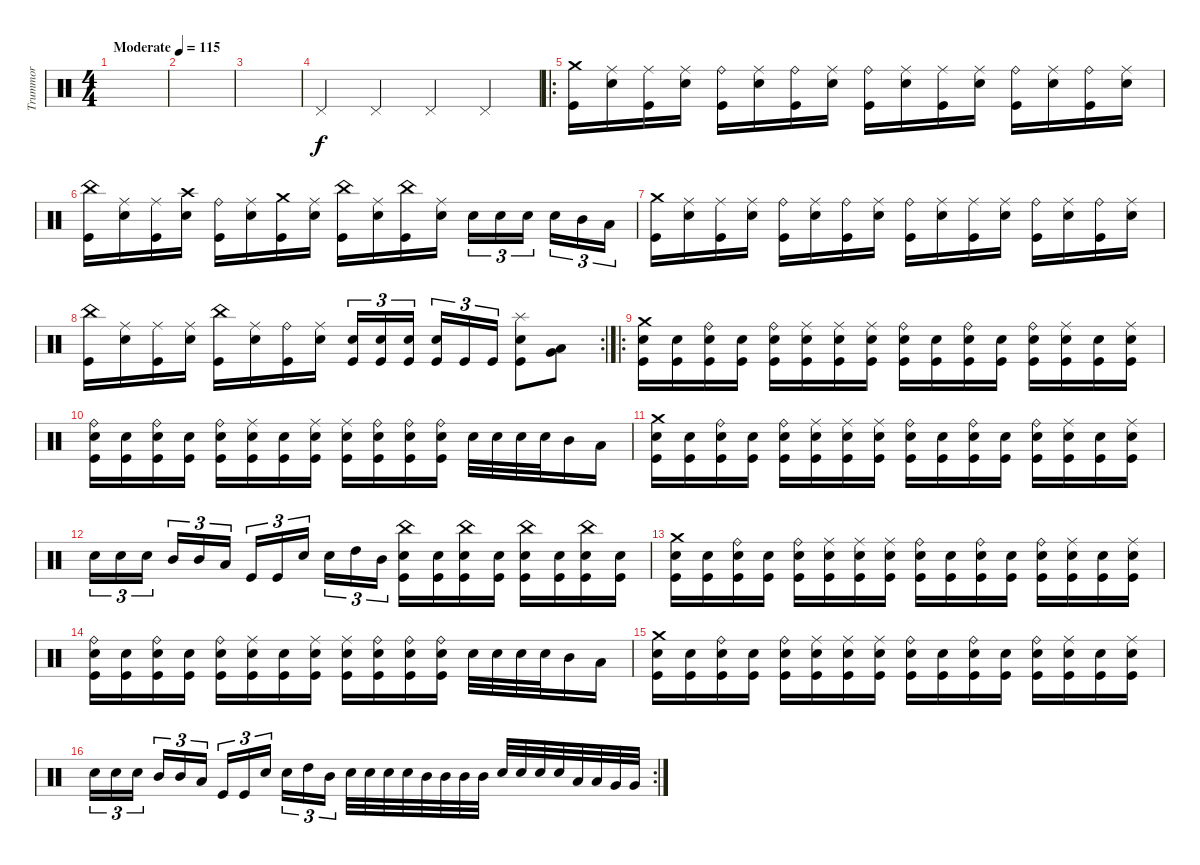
\track ("Trummor" "Trummor") {instrument percussion}
\staff {score}
\articulation defaults
\ts (4 4)
\tempo (115 "Moderate")
\clef neutral
\ks c
|
|
|
"Pedal Hi-Hat (hit)".4 "Pedal Hi-Hat (hit)".4 "Pedal Hi-Hat (hit)".4 "Pedal Hi-Hat (hit)".4 |
\ro
("Crash medium (hit)" "Kick (hit)").16 ("Ride (middle)" "Electric Snare (hit)").16 ("Ride (middle)" "Kick (hit)").16 ("Ride (middle)" "Electric Snare (hit)").16 ("Ride (bell)" "Kick (hit)").16 ("Ride (middle)" "Electric Snare (hit)").16 ("Ride (bell)" "Kick (hit)").16 ("Ride (middle)" "Electric Snare (hit)").16 ("Ride (bell)" "Kick (hit)").16 ("Ride (middle)" "Electric Snare (hit)").16 ("Ride (middle)" "Kick (hit)").16 ("Ride (middle)" "Electric Snare (hit)").16 ("Ride (bell)" "Kick (hit)").16 ("Ride (middle)" "Electric Snare (hit)").16 ("Ride (bell)" "Kick (hit)").16 ("Ride (middle)" "Electric Snare (hit)").16 |
("China (hit)" "Kick (hit)").16 ("Ride (middle)" "Electric Snare (hit)").16 ("Ride (middle)" "Kick (hit)").16 ("Crash high (hit)" "Electric Snare (hit)").16 ("Ride (bell)" "Kick (hit)").16 ("Ride (middle)" "Electric Snare (hit)").16 ("Crash medium (hit)" "Kick (hit)").16 ("Ride (middle)" "Electric Snare (hit)").16 ("China (hit)" "Kick (hit)").16 ("Ride (middle)" "Electric Snare (hit)").16 ("China (hit)" "Kick (hit)").16 ("Ride (middle)" "Electric Snare (hit)").16 "Electric Snare (hit)".16{tu (3 2)} "Electric Snare (hit)".16{tu (3 2)} "Electric Snare (hit)".16{tu (3 2) beam splitsecondary} "Electric Snare (hit)".16{tu (3 2)} "Mid Tom (hit)".16{tu (3 2)} "Low Tom (hit)".16{tu (3 2)} |
("Crash medium (hit)" "Kick (hit)").16 ("Ride (middle)" "Electric Snare (hit)").16 ("Ride (middle)" "Kick (hit)").16 ("Ride (middle)" "Electric Snare (hit)").16 ("Ride (bell)" "Kick (hit)").16 ("Ride (middle)" "Electric Snare (hit)").16 ("Ride (bell)" "Kick (hit)").16 ("Ride (middle)" "Electric Snare (hit)").16 ("Ride (bell)" "Kick (hit)").16 ("Ride (middle)" "Electric Snare (hit)").16 ("Ride (middle)" "Kick (hit)").16 ("Ride (middle)" "Electric Snare (hit)").16 ("Ride (bell)" "Kick (hit)").16 ("Ride (middle)" "Electric Snare (hit)").16 ("Ride (bell)" "Kick (hit)").16 ("Ride (middle)" "Electric Snare (hit)").16 |
\rc 2
("China (hit)" "Kick (hit)").16 ("Ride (middle)" "Electric Snare (hit)").16 ("Ride (middle)" "Kick (hit)").16 ("Ride (middle)" "Electric Snare (hit)").16 ("China (hit)" "Kick (hit)").16 ("Ride (middle)" "Electric Snare (hit)").16 ("Ride (bell)" "Kick (hit)").16 ("Ride (middle)" "Electric Snare (hit)").16 ("Electric Snare (hit)" "Kick (hit)").16{tu (3 2)} ("Electric Snare (hit)" "Kick (hit)").16{tu (3 2)} ("Electric Snare (hit)" "Kick (hit)").16{tu (3 2) beam splitsecondary} ("Electric Snare (hit)" "Kick (hit)").16{tu (3 2)} "Kick (hit)".16{tu (3 2)} "Kick (hit)".16{tu (3 2)} ("Splash (hit)" "Electric Snare (hit)" "Kick (hit)").8 ("Low Tom (hit)" "Very Low Tom (hit)").8 |
\ro
("Crash medium (hit)" "Electric Snare (hit)" "Kick (hit)").16 ("Electric Snare (hit)" "Kick (hit)").16 ("Ride (bell)" "Electric Snare (hit)" "Kick (hit)").16 ("Electric Snare (hit)" "Kick (hit)").16 ("Ride (bell)" "Electric Snare (hit)" "Kick (hit)").16 ("Ride (middle)" "Electric Snare (hit)" "Kick (hit)").16 ("Ride (middle)" "Electric Snare (hit)" "Kick (hit)").16 ("Ride (middle)" "Electric Snare (hit)" "Kick (hit)").16 ("Ride (bell)" "Electric Snare (hit)" "Kick (hit)").16 ("Electric Snare (hit)" "Kick (hit)").16 ("Ride (bell)" "Electric Snare (hit)" "Kick (hit)").16 ("Electric Snare (hit)" "Kick (hit)").16 ("Ride (bell)" "Electric Snare (hit)" "Kick (hit)").16 ("Ride (middle)" "Electric Snare (hit)" "Kick (hit)").16 ("Electric Snare (hit)" "Kick (hit)").16 ("Ride (middle)" "Electric Snare (hit)" "Kick (hit)").16 |
("Ride (bell)" "Electric Snare (hit)" "Kick (hit)").16 ("Electric Snare (hit)" "Kick (hit)").16 ("Ride (bell)" "Electric Snare (hit)" "Kick (hit)").16 ("Electric Snare (hit)" "Kick (hit)").16 ("Ride (bell)" "Electric Snare (hit)" "Kick (hit)").16 ("Ride (middle)" "Electric Snare (hit)" "Kick (hit)").16 ("Electric Snare (hit)" "Kick (hit)").16 ("Ride (middle)" "Electric Snare (hit)" "Kick (hit)").16 ("Ride (middle)" "Electric Snare (hit)" "Kick (hit)").16 ("Ride (bell)" "Electric Snare (hit)" "Kick (hit)").16 ("Ride (bell)" "Electric Snare (hit)" "Kick (hit)").16 ("Ride (bell)" "Electric Snare (hit)" "Kick (hit)").16 "Electric Snare (hit)".32 "Electric Snare (hit)".32 "Electric Snare (hit)".32 "Electric Snare (hit)".32 "Mid Tom (hit)".16 "Low Tom (hit)".16 |
("Crash medium (hit)" "Electric Snare (hit)" "Kick (hit)").16 ("Electric Snare (hit)" "Kick (hit)").16 ("Ride (bell)" "Electric Snare (hit)" "Kick (hit)").16 ("Electric Snare (hit)" "Kick (hit)").16 ("Ride (bell)" "Electric Snare (hit)" "Kick (hit)").16 ("Ride (middle)" "Electric Snare (hit)" "Kick (hit)").16 ("Ride (middle)" "Electric Snare (hit)" "Kick (hit)").16 ("Ride (middle)" "Electric Snare (hit)" "Kick (hit)").16 ("Ride (bell)" "Electric Snare (hit)" "Kick (hit)").16 ("Electric Snare (hit)" "Kick (hit)").16 ("Ride (bell)" "Electric Snare (hit)" "Kick (hit)").16 ("Electric Snare (hit)" "Kick (hit)").16 ("Ride (bell)" "Electric Snare (hit)" "Kick (hit)").16 ("Ride (middle)" "Electric Snare (hit)" "Kick (hit)").16 ("Electric Snare (hit)" "Kick (hit)").16 ("Ride (middle)" "Electric Snare (hit)" "Kick (hit)").16 |
"Electric Snare (hit)".16{tu (3 2)} "Electric Snare (hit)".16{tu (3 2)} "Electric Snare (hit)".16{tu (3 2) beam splitsecondary} "Mid Tom (hit)".16{tu (3 2)} "Mid Tom (hit)".16{tu (3 2)} "Low Tom (hit)".16{tu (3 2)} "Kick (hit)".16{tu (3 2)} "Kick (hit)".16{tu (3 2)} "Electric Snare (hit)".16{tu (3 2) beam splitsecondary} "Electric Snare (hit)".16{tu (3 2)} "High Tom (hit)".16{tu (3 2)} "Mid Tom (hit)".16{tu (3 2)} ("China (hit)" "Electric Snare (hit)" "Kick (hit)").16 ("Electric Snare (hit)" "Kick (hit)").16 ("China (hit)" "Electric Snare (hit)" "Kick (hit)").16 ("Electric Snare (hit)" "Kick (hit)").16 ("China (hit)" "Electric Snare (hit)" "Kick (hit)").16 ("Electric Snare (hit)" "Kick (hit)").16 ("China (hit)" "Electric Snare (hit)" "Kick (hit)").16 ("Electric Snare (hit)" "Kick (hit)").16 |
("Crash medium (hit)" "Electric Snare (hit)" "Kick (hit)").16 ("Electric Snare (hit)" "Kick (hit)").16 ("Ride (bell)" "Electric Snare (hit)" "Kick (hit)").16 ("Electric Snare (hit)" "Kick (hit)").16 ("Ride (bell)" "Electric Snare (hit)" "Kick (hit)").16 ("Ride (middle)" "Electric Snare (hit)" "Kick (hit)").16 ("Ride (middle)" "Electric Snare (hit)" "Kick (hit)").16 ("Ride (middle)" "Electric Snare (hit)" "Kick (hit)").16 ("Ride (bell)" "Electric Snare (hit)" "Kick (hit)").16 ("Electric Snare (hit)" "Kick (hit)").16 ("Ride (bell)" "Electric Snare (hit)" "Kick (hit)").16 ("Electric Snare (hit)" "Kick (hit)").16 ("Ride (bell)" "Electric Snare (hit)" "Kick (hit)").16 ("Ride (middle)" "Electric Snare (hit)" "Kick (hit)").16 ("Electric Snare (hit)" "Kick (hit)").16 ("Ride (middle)" "Electric Snare (hit)" "Kick (hit)").16 |
("Ride (bell)" "Electric Snare (hit)" "Kick (hit)").16 ("Electric Snare (hit)" "Kick (hit)").16 ("Ride (bell)" "Electric Snare (hit)" "Kick (hit)").16 ("Electric Snare (hit)" "Kick (hit)").16 ("Ride (bell)" "Electric Snare (hit)" "Kick (hit)").16 ("Ride (middle)" "Electric Snare (hit)" "Kick (hit)").16 ("Electric Snare (hit)" "Kick (hit)").16 ("Ride (middle)" "Electric Snare (hit)" "Kick (hit)").16 ("Ride (middle)" "Electric Snare (hit)" "Kick (hit)").16 ("Ride (bell)" "Electric Snare (hit)" "Kick (hit)").16 ("Ride (bell)" "Electric Snare (hit)" "Kick (hit)").16 ("Ride (bell)" "Electric Snare (hit)" "Kick (hit)").16 "Electric Snare (hit)".32 "Electric Snare (hit)".32 "Electric Snare (hit)".32 "Electric Snare (hit)".32 "Mid Tom (hit)".16 "Low Tom (hit)".16 |
("Crash medium (hit)" "Electric Snare (hit)" "Kick (hit)").16 ("Electric Snare (hit)" "Kick (hit)").16 ("Ride (bell)" "Electric Snare (hit)" "Kick (hit)").16 ("Electric Snare (hit)" "Kick (hit)").16 ("Ride (bell)" "Electric Snare (hit)" "Kick (hit)").16 ("Ride (middle)" "Electric Snare (hit)" "Kick (hit)").16 ("Ride (middle)" "Electric Snare (hit)" "Kick (hit)").16 ("Ride (middle)" "Electric Snare (hit)" "Kick (hit)").16 ("Ride (bell)" "Electric Snare (hit)" "Kick (hit)").16 ("Electric Snare (hit)" "Kick (hit)").16 ("Ride (bell)" "Electric Snare (hit)" "Kick (hit)").16 ("Electric Snare (hit)" "Kick (hit)").16 ("Ride (bell)" "Electric Snare (hit)" "Kick (hit)").16 ("Ride (middle)" "Electric Snare (hit)" "Kick (hit)").16 ("Electric Snare (hit)" "Kick (hit)").16 ("Ride (middle)" "Electric Snare (hit)" "Kick (hit)").16 |
\rc 2 "Electric Snare (hit)".16{tu (3 2)} "Electric Snare (hit)".16{tu (3 2)} "Electric Snare (hit)".16{tu (3 2) beam splitsecondary} "Mid Tom (hit)".16{tu (3 2)} "Mid Tom (hit)".16{tu (3 2)} "Low Tom (hit)".16{tu (3 2)} "Kick (hit)".16{tu (3 2)} "Kick (hit)".16{tu (3 2)} "Electric Snare (hit)".16{tu (3 2) beam splitsecondary} "Electric Snare (hit)".16{tu (3 2)} "High Tom (hit)".16{tu (3 2)} "Mid Tom (hit)".16{tu (3 2)} "Electric Snare (hit)".32 "Electric Snare (hit)".32 "Electric Snare (hit)".32 "Electric Snare (hit)".32 "Mid Tom (hit)".32 "Mid Tom (hit)".32 "Mid Tom (hit)".32 "Mid Tom (hit)".32 "Electric Snare (hit)".32 "Electric Snare (hit)".32 "Electric Snare (hit)".32 "Electric Snare (hit)".32 "Low Tom (hit)".32 "Low Tom (hit)".32 "Very Low Tom (hit)".32 "Very Low Tom (hit)".32
